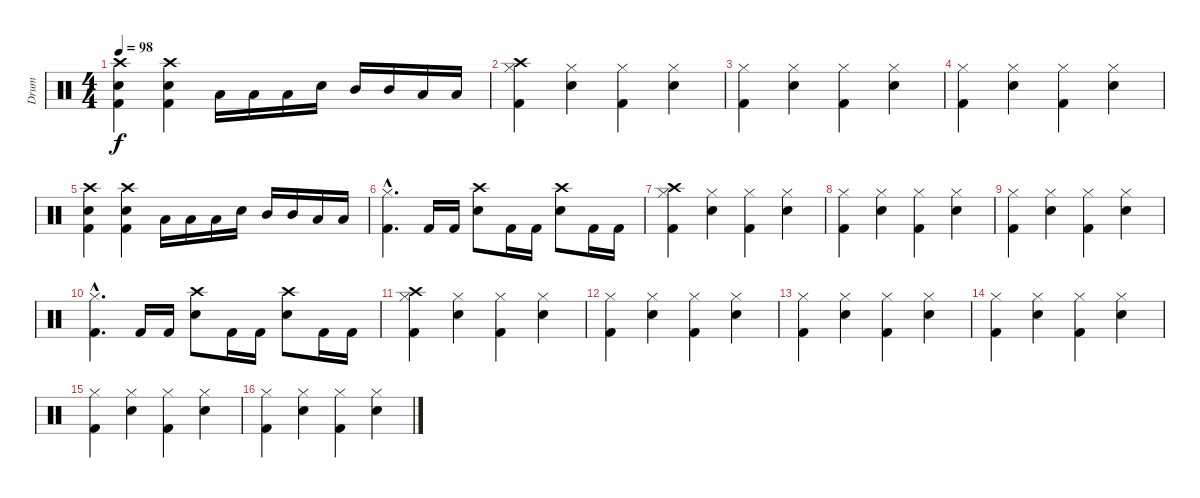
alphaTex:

\track ("Drum" "Drum") {instrument percussion}
\staff {score}
\articulation defaults
\ts (4 4)
\tempo 98
\clef neutral
\ks c
("Crash high (hit)" "Snare (hit) 2" "Kick (hit) 2").4{dy f} ("Crash high (hit)" "Snare (hit) 2" "Kick (hit) 2").4 "Low Tom (hit)".16 "Low Floor Tom (hit)".16 "Low Tom (hit)".16 "Snare (hit) 2".16 "Mid Tom (hit)".16 "Mid Tom (hit)".16 "Low Tom (hit)".16 "Low Floor Tom (hit)".16 |
("Crash high (hit)" "Hi-Hat (closed)" "Kick (hit) 2").4 ("Hi-Hat (closed)" "Snare (hit) 2").4 ("Hi-Hat (closed)" "Kick (hit) 2").4 ("Hi-Hat (closed)" "Snare (hit) 2").4 |
("Hi-Hat (closed)" "Kick (hit) 2").4 ("Hi-Hat (closed)" "Snare (hit) 2").4 ("Hi-Hat (closed)" "Kick (hit) 2").4 ("Hi-Hat (closed)" "Snare (hit) 2").4 |
("Hi-Hat (closed)" "Kick (hit) 2").4 ("Hi-Hat (closed)" "Snare (hit) 2").4 ("Hi-Hat (closed)" "Kick (hit) 2").4 ("Hi-Hat (closed)" "Snare (hit) 2").4 |
("Crash high (hit)" "Snare (hit) 2" "Kick (hit) 2").4 ("Crash high (hit)" "Snare (hit) 2" "Kick (hit) 2").4 "Low Tom (hit)".16 "Low Floor Tom (hit)".16 "Low Tom (hit)".16 "Snare (hit) 2".16 "Mid Tom (hit)".16 "Mid Tom (hit)".16 "Low Tom (hit)".16 "Low Floor Tom (hit)".16 |
("Hi-Hat (closed)"{hac} "Kick (hit) 2"{hac}).4{d} "Kick (hit) 2".16 "Kick (hit) 2".16 ("Crash high (hit)" "Snare (hit) 2").8 "Kick (hit) 2".16 "Kick (hit) 2".16 ("Crash high (hit)" "Snare (hit) 2").8 "Kick (hit) 2".16 "Kick (hit) 2".16 |
("Crash high (hit)" "Hi-Hat (closed)" "Kick (hit) 2").4 ("Hi-Hat (closed)" "Snare (hit) 2").4 ("Hi-Hat (closed)" "Kick (hit) 2").4 ("Hi-Hat (closed)" "Snare (hit) 2").4 |
("Hi-Hat (closed)" "Kick (hit) 2").4 ("Hi-Hat (closed)" "Snare (hit) 2").4 ("Hi-Hat (closed)" "Kick (hit) 2").4 ("Hi-Hat (closed)" "Snare (hit) 2").4 |
("Hi-Hat (closed)" "Kick (hit) 2").4 ("Hi-Hat (closed)" "Snare (hit) 2").4 ("Hi-Hat (closed)" "Kick (hit) 2").4 ("Hi-Hat (closed)" "Snare (hit) 2").4 |
("Hi-Hat (closed)"{hac} "Kick (hit) 2"{hac}).4{d} "Kick (hit) 2".16 "Kick (hit) 2".16 ("Crash high (hit)" "Snare (hit) 2").8 "Kick (hit) 2".16 "Kick (hit) 2".16 ("Crash high (hit)" "Snare (hit) 2").8 "Kick (hit) 2".16 "Kick (hit) 2".16 |
("Crash high (hit)" "Hi-Hat (closed)" "Kick (hit) 2").4 ("Hi-Hat (closed)" "Snare (hit) 2").4 ("Hi-Hat (closed)" "Kick (hit) 2").4 ("Hi-Hat (closed)" "Snare (hit) 2").4 |
("Hi-Hat (closed)" "Kick (hit) 2").4 ("Hi-Hat (closed)" "Snare (hit) 2").4 ("Hi-Hat (closed)" "Kick (hit) 2").4 ("Hi-Hat (closed)" "Snare (hit) 2").4 |
("Hi-Hat (closed)" "Kick (hit) 2").4 ("Hi-Hat (closed)" "Snare (hit) 2").4 ("Hi-Hat (closed)" "Kick (hit) 2").4 ("Hi-Hat (closed)" "Snare (hit) 2").4 |
("Hi-Hat (closed)" "Kick (hit) 2").4 ("Hi-Hat (closed)" "Snare (hit) 2").4 ("Hi-Hat (closed)" "Kick (hit) 2").4 ("Hi-Hat (closed)" "Snare (hit) 2").4 |
("Hi-Hat (closed)" "Kick (hit) 2").4 ("Hi-Hat (closed)" "Snare (hit) 2").4 ("Hi-Hat (closed)" "Kick (hit) 2").4 ("Hi-Hat (closed)" "Snare (hit) 2").4 |
("Hi-Hat (closed)" "Kick (hit) 2").4 ("Hi-Hat (closed)" "Snare (hit) 2").4 ("Hi-Hat (closed)" "Kick (hit) 2").4 ("Hi-Hat (closed)" "Snare (hit) 2").4
